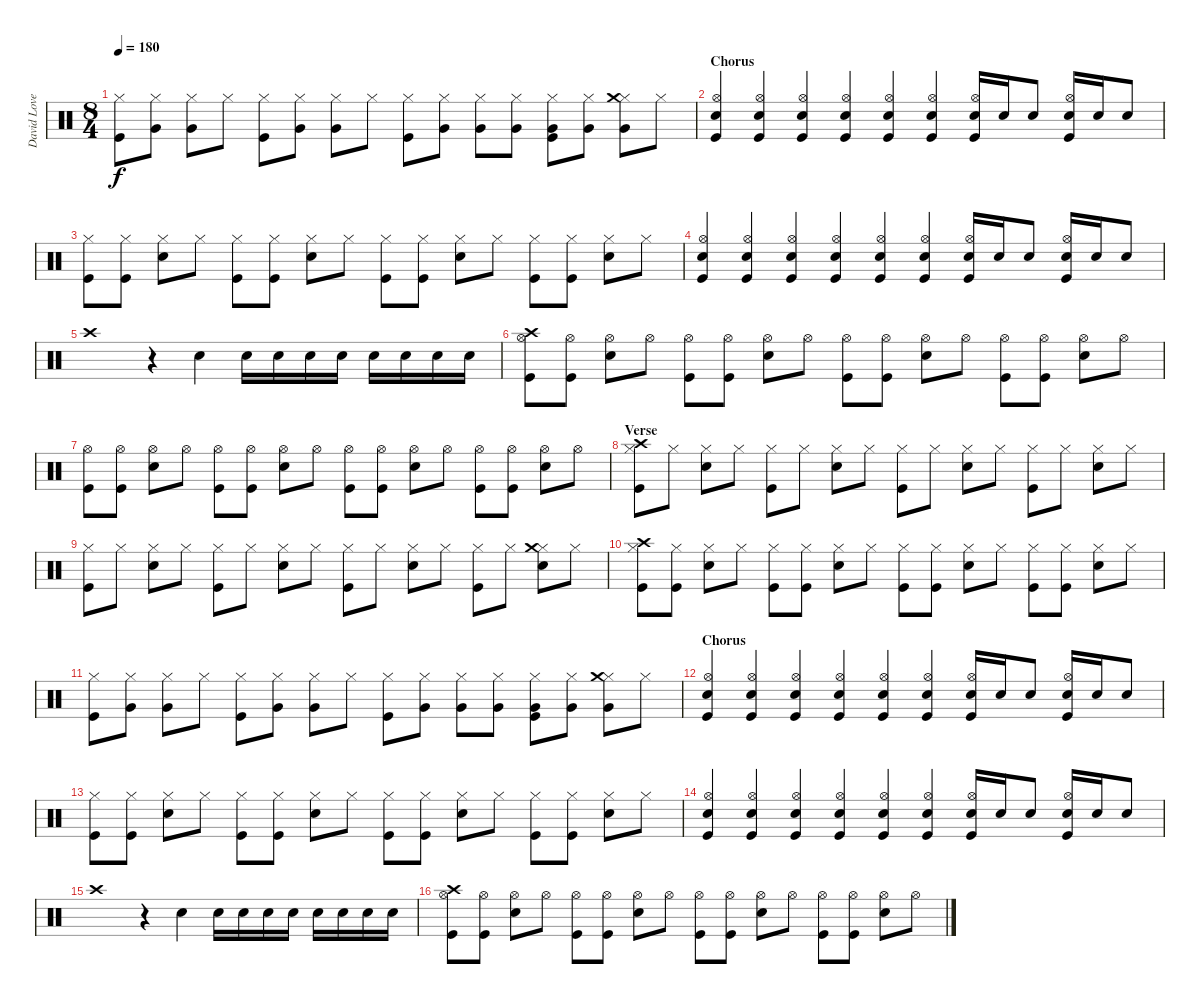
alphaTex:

\track ("David Lovering" "David Love") {instrument percussion}
\staff {score}
\articulation defaults
\ts (8 4)
\tempo 180
\clef neutral
\ks c
("Hi-Hat (closed)" "Kick (hit)").8{dy f} ("Hi-Hat (closed)" "Very Low Tom (hit)").8 ("Hi-Hat (closed)" "Very Low Tom (hit)").8 "Hi-Hat (closed)".8 ("Hi-Hat (closed)" "Kick (hit)").8 ("Hi-Hat (closed)" "Very Low Tom (hit)").8 ("Hi-Hat (closed)" "Very Low Tom (hit)").8 "Hi-Hat (closed)".8 ("Hi-Hat (closed)" "Kick (hit)").8 ("Hi-Hat (closed)" "Very Low Tom (hit)").8 ("Hi-Hat (closed)" "Very Low Tom (hit)").8 ("Hi-Hat (closed)" "Very Low Tom (hit)").8 ("Hi-Hat (closed)" "Very Low Tom (hit)" "Kick (hit)").8 ("Hi-Hat (closed)" "Very Low Tom (hit)").8 ("Hi-Hat (closed)" "Crash medium (hit)" "Very Low Tom (hit)").8 "Hi-Hat (closed)".8 |
\section ("" "Chorus")
("Hi-Hat (open)" "Snare (hit) 2" "Kick (hit)").4 ("Hi-Hat (open)" "Snare (hit) 2" "Kick (hit)").4 ("Hi-Hat (open)" "Snare (hit) 2" "Kick (hit)").4 ("Hi-Hat (open)" "Snare (hit) 2" "Kick (hit)").4 ("Hi-Hat (open)" "Snare (hit) 2" "Kick (hit)").4 ("Hi-Hat (open)" "Snare (hit) 2" "Kick (hit)").4 ("Hi-Hat (open)" "Snare (hit) 2" "Kick (hit)").16 "Snare (hit) 2".16 "Snare (hit) 2".8 ("Hi-Hat (open)" "Snare (hit) 2" "Kick (hit)").16 "Snare (hit) 2".16 "Snare (hit) 2".8 |
("Hi-Hat (closed)" "Kick (hit)").8 ("Hi-Hat (closed)" "Kick (hit)").8 ("Hi-Hat (closed)" "Snare (hit) 2").8 "Hi-Hat (closed)".8 ("Hi-Hat (closed)" "Kick (hit)").8 ("Hi-Hat (closed)" "Kick (hit)").8 ("Hi-Hat (closed)" "Snare (hit) 2").8 "Hi-Hat (closed)".8 ("Hi-Hat (closed)" "Kick (hit)").8 ("Hi-Hat (closed)" "Kick (hit)").8 ("Hi-Hat (closed)" "Snare (hit) 2").8 "Hi-Hat (closed)".8 ("Hi-Hat (closed)" "Kick (hit)").8 ("Hi-Hat (closed)" "Kick (hit)").8 ("Hi-Hat (closed)" "Snare (hit) 2").8 "Hi-Hat (closed)".8 |
("Hi-Hat (open)" "Snare (hit) 2" "Kick (hit)").4 ("Hi-Hat (open)" "Snare (hit) 2" "Kick (hit)").4 ("Hi-Hat (open)" "Snare (hit) 2" "Kick (hit)").4 ("Hi-Hat (open)" "Snare (hit) 2" "Kick (hit)").4 ("Hi-Hat (open)" "Snare (hit) 2" "Kick (hit)").4 ("Hi-Hat (open)" "Snare (hit) 2" "Kick (hit)").4 ("Hi-Hat (open)" "Snare (hit) 2" "Kick (hit)").16 "Snare (hit) 2".16 "Snare (hit) 2".8 ("Hi-Hat (open)" "Snare (hit) 2" "Kick (hit)").16 "Snare (hit) 2".16 "Snare (hit) 2".8 |
"Crash high (hit)".1 r.4 "Snare (hit) 2".4 "Snare (hit) 2".16 "Snare (hit) 2".16 "Snare (hit) 2".16 "Snare (hit) 2".16 "Snare (hit) 2".16 "Snare (hit) 2".16 "Snare (hit) 2".16 "Snare (hit) 2".16 |
("Hi-Hat (open)" "Crash high (hit)" "Kick (hit)").8 ("Hi-Hat (open)" "Kick (hit)").8 ("Hi-Hat (open)" "Snare (hit) 2").8 "Hi-Hat (open)".8 ("Hi-Hat (open)" "Kick (hit)").8 ("Hi-Hat (open)" "Kick (hit)").8 ("Hi-Hat (open)" "Snare (hit) 2").8 "Hi-Hat (open)".8 ("Hi-Hat (open)" "Kick (hit)").8 ("Hi-Hat (open)" "Kick (hit)").8 ("Hi-Hat (open)" "Snare (hit) 2").8 "Hi-Hat (open)".8 ("Hi-Hat (open)" "Kick (hit)").8 ("Hi-Hat (open)" "Kick (hit)").8 ("Hi-Hat (open)" "Snare (hit) 2").8 "Hi-Hat (open)".8 |
("Hi-Hat (open)" "Kick (hit)").8 ("Hi-Hat (open)" "Kick (hit)").8 ("Hi-Hat (open)" "Snare (hit) 2").8 "Hi-Hat (open)".8 ("Hi-Hat (open)" "Kick (hit)").8 ("Hi-Hat (open)" "Kick (hit)").8 ("Hi-Hat (open)" "Snare (hit) 2").8 "Hi-Hat (open)".8 ("Hi-Hat (open)" "Kick (hit)").8 ("Hi-Hat (open)" "Kick (hit)").8 ("Hi-Hat (open)" "Snare (hit) 2").8 "Hi-Hat (open)".8 ("Hi-Hat (open)" "Kick (hit)").8 ("Hi-Hat (open)" "Kick (hit)").8 ("Hi-Hat (open)" "Snare (hit) 2").8 "Hi-Hat (open)".8 |
\section ("" "Verse")
("Hi-Hat (closed)" "Crash high (hit)" "Kick (hit)").8 "Hi-Hat (closed)".8 ("Hi-Hat (closed)" "Snare (hit) 2").8 "Hi-Hat (closed)".8 ("Hi-Hat (closed)" "Kick (hit)").8 "Hi-Hat (closed)".8 ("Hi-Hat (closed)" "Snare (hit) 2").8 "Hi-Hat (closed)".8 ("Hi-Hat (closed)" "Kick (hit)").8 "Hi-Hat (closed)".8 ("Hi-Hat (closed)" "Snare (hit) 2").8 "Hi-Hat (closed)".8 ("Hi-Hat (closed)" "Kick (hit)").8 "Hi-Hat (closed)".8 ("Hi-Hat (closed)" "Snare (hit) 2").8 "Hi-Hat (closed)".8 |
("Hi-Hat (closed)" "Kick (hit)").8 "Hi-Hat (closed)".8 ("Hi-Hat (closed)" "Snare (hit) 2").8 "Hi-Hat (closed)".8 ("Hi-Hat (closed)" "Kick (hit)").8 "Hi-Hat (closed)".8 ("Hi-Hat (closed)" "Snare (hit) 2").8 "Hi-Hat (closed)".8 ("Hi-Hat (closed)" "Kick (hit)").8 "Hi-Hat (closed)".8 ("Hi-Hat (closed)" "Snare (hit) 2").8 "Hi-Hat (closed)".8 ("Hi-Hat (closed)" "Kick (hit)").8 "Hi-Hat (closed)".8 ("Hi-Hat (closed)" "Crash medium (hit)" "Snare (hit) 2").8 "Hi-Hat (closed)".8 |
("Hi-Hat (closed)" "Crash high (hit)" "Kick (hit)").8 ("Hi-Hat (closed)" "Kick (hit)").8 ("Hi-Hat (closed)" "Snare (hit) 2").8 "Hi-Hat (closed)".8 ("Hi-Hat (closed)" "Kick (hit)").8 ("Hi-Hat (closed)" "Kick (hit)").8 ("Hi-Hat (closed)" "Snare (hit) 2").8 "Hi-Hat (closed)".8 ("Hi-Hat (closed)" "Kick (hit)").8 ("Hi-Hat (closed)" "Kick (hit)").8 ("Hi-Hat (closed)" "Snare (hit) 2").8 "Hi-Hat (closed)".8 ("Hi-Hat (closed)" "Kick (hit)").8 ("Hi-Hat (closed)" "Kick (hit)").8 ("Hi-Hat (closed)" "Snare (hit) 2").8 "Hi-Hat (closed)".8 |
("Hi-Hat (closed)" "Kick (hit)").8 ("Hi-Hat (closed)" "Very Low Tom (hit)").8 ("Hi-Hat (closed)" "Very Low Tom (hit)").8 "Hi-Hat (closed)".8 ("Hi-Hat (closed)" "Kick (hit)").8 ("Hi-Hat (closed)" "Very Low Tom (hit)").8 ("Hi-Hat (closed)" "Very Low Tom (hit)").8 "Hi-Hat (closed)".8 ("Hi-Hat (closed)" "Kick (hit)").8 ("Hi-Hat (closed)" "Very Low Tom (hit)").8 ("Hi-Hat (closed)" "Very Low Tom (hit)").8 ("Hi-Hat (closed)" "Very Low Tom (hit)").8 ("Hi-Hat (closed)" "Very Low Tom (hit)" "Kick (hit)").8 ("Hi-Hat (closed)" "Very Low Tom (hit)").8 ("Hi-Hat (closed)" "Crash medium (hit)" "Very Low Tom (hit)").8 "Hi-Hat (closed)".8 |
\section ("" "Chorus")
("Hi-Hat (open)" "Snare (hit) 2" "Kick (hit)").4 ("Hi-Hat (open)" "Snare (hit) 2" "Kick (hit)").4 ("Hi-Hat (open)" "Snare (hit) 2" "Kick (hit)").4 ("Hi-Hat (open)" "Snare (hit) 2" "Kick (hit)").4 ("Hi-Hat (open)" "Snare (hit) 2" "Kick (hit)").4 ("Hi-Hat (open)" "Snare (hit) 2" "Kick (hit)").4 ("Hi-Hat (open)" "Snare (hit) 2" "Kick (hit)").16 "Snare (hit) 2".16 "Snare (hit) 2".8 ("Hi-Hat (open)" "Snare (hit) 2" "Kick (hit)").16 "Snare (hit) 2".16 "Snare (hit) 2".8 |
\section ("" "")
("Hi-Hat (closed)" "Kick (hit)").8 ("Hi-Hat (closed)" "Kick (hit)").8 ("Hi-Hat (closed)" "Snare (hit) 2").8 "Hi-Hat (closed)".8 ("Hi-Hat (closed)" "Kick (hit)").8 ("Hi-Hat (closed)" "Kick (hit)").8 ("Hi-Hat (closed)" "Snare (hit) 2").8 "Hi-Hat (closed)".8 ("Hi-Hat (closed)" "Kick (hit)").8 ("Hi-Hat (closed)" "Kick (hit)").8 ("Hi-Hat (closed)" "Snare (hit) 2").8 "Hi-Hat (closed)".8 ("Hi-Hat (closed)" "Kick (hit)").8 ("Hi-Hat (closed)" "Kick (hit)").8 ("Hi-Hat (closed)" "Snare (hit) 2").8 "Hi-Hat (closed)".8 |
\section ("" "")
("Hi-Hat (open)" "Snare (hit) 2" "Kick (hit)").4 ("Hi-Hat (open)" "Snare (hit) 2" "Kick (hit)").4 ("Hi-Hat (open)" "Snare (hit) 2" "Kick (hit)").4 ("Hi-Hat (open)" "Snare (hit) 2" "Kick (hit)").4 ("Hi-Hat (open)" "Snare (hit) 2" "Kick (hit)").4 ("Hi-Hat (open)" "Snare (hit) 2" "Kick (hit)").4 ("Hi-Hat (open)" "Snare (hit) 2" "Kick (hit)").16 "Snare (hit) 2".16 "Snare (hit) 2".8 ("Hi-Hat (open)" "Snare (hit) 2" "Kick (hit)").16 "Snare (hit) 2".16 "Snare (hit) 2".8 |
"Crash high (hit)".1 r.4 "Snare (hit) 2".4 "Snare (hit) 2".16 "Snare (hit) 2".16 "Snare (hit) 2".16 "Snare (hit) 2".16 "Snare (hit) 2".16 "Snare (hit) 2".16 "Snare (hit) 2".16 "Snare (hit) 2".16 |
("Hi-Hat (open)" "Crash high (hit)" "Kick (hit)").8 ("Hi-Hat (open)" "Kick (hit)").8 ("Hi-Hat (open)" "Snare (hit) 2").8 "Hi-Hat (open)".8 ("Hi-Hat (open)" "Kick (hit)").8 ("Hi-Hat (open)" "Kick (hit)").8 ("Hi-Hat (open)" "Snare (hit) 2").8 "Hi-Hat (open)".8 ("Hi-Hat (open)" "Kick (hit)").8 ("Hi-Hat (open)" "Kick (hit)").8 ("Hi-Hat (open)" "Snare (hit) 2").8 "Hi-Hat (open)".8 ("Hi-Hat (open)" "Kick (hit)").8 ("Hi-Hat (open)" "Kick (hit)").8 ("Hi-Hat (open)" "Snare (hit) 2").8 "Hi-Hat (open)".8
